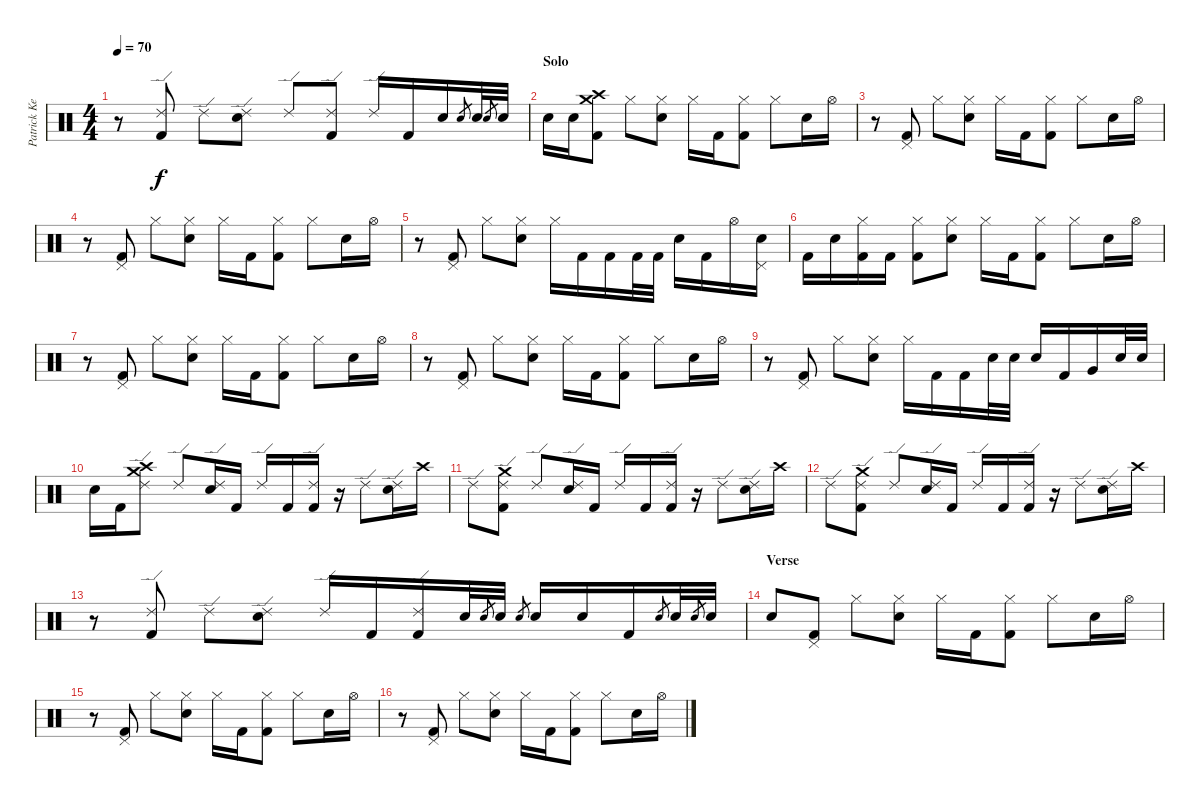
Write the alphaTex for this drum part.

\track ("Patrick Keeler (Drums)" "Patrick Ke") {instrument percussion}
\staff {score}
\articulation defaults
\ts (4 4)
\tempo 70
\clef neutral
\ks c
r.8{dy f} ("Kick (hit) 2" "Ride (edge) 2").8 "Ride (edge) 2".8 ("Snare (hit) 2" "Ride (edge) 2").8 "Ride (edge) 2".8 ("Kick (hit) 2" "Ride (edge) 2").8 "Ride (edge) 2".16 "Kick (hit) 2".16 "Snare (hit) 2".16 "Snare (hit) 2".8{gr} "Snare (hit) 2".32 "Snare (hit) 2".8{gr} "Snare (hit) 2".32 |
\section ("" "Solo")
"Snare (hit) 2".16 "Snare (hit) 2".16 ("Kick (hit) 2" "Crash high (hit)" "Crash medium (hit)").8 "Hi-Hat (closed)".8 ("Snare (hit) 2" "Hi-Hat (closed)").8 "Hi-Hat (closed)".16 "Kick (hit) 2".16 ("Kick (hit) 2" "Hi-Hat (closed)").8 "Hi-Hat (closed)".8 "Snare (hit) 2".16 "Hi-Hat (open)".16 |
r.8 ("Kick (hit) 2" "Pedal Hi-Hat (hit)").8 "Hi-Hat (closed)".8 ("Snare (hit) 2" "Hi-Hat (closed)").8 "Hi-Hat (closed)".16 "Kick (hit) 2".16 ("Kick (hit) 2" "Hi-Hat (closed)").8 "Hi-Hat (closed)".8 "Snare (hit) 2".16 "Hi-Hat (open)".16 |
r.8 ("Kick (hit) 2" "Pedal Hi-Hat (hit)").8 "Hi-Hat (closed)".8 ("Snare (hit) 2" "Hi-Hat (closed)").8 "Hi-Hat (closed)".16 "Kick (hit) 2".16 ("Kick (hit) 2" "Hi-Hat (closed)").8 "Hi-Hat (closed)".8 "Snare (hit) 2".16 "Hi-Hat (open)".16 |
r.8 ("Kick (hit) 2" "Pedal Hi-Hat (hit)").8 "Hi-Hat (closed)".8 ("Snare (hit) 2" "Hi-Hat (closed)").8 "Hi-Hat (closed)".16 "Kick (hit) 2".16 "Kick (hit) 2".16 "Kick (hit) 2".32 "Kick (hit) 2".32 "Snare (hit) 2".16 "Kick (hit) 2".16 "Hi-Hat (open)".16 ("Snare (hit) 2" "Pedal Hi-Hat (hit)").16 |
"Kick (hit) 2".16 "Snare (hit) 2".16 ("Kick (hit) 2" "Hi-Hat (closed)").16 "Kick (hit) 2".16 ("Kick (hit) 2" "Hi-Hat (closed)").8 ("Snare (hit) 2" "Hi-Hat (closed)").8 "Hi-Hat (closed)".16 "Kick (hit) 2".16 ("Kick (hit) 2" "Hi-Hat (closed)").8 "Hi-Hat (closed)".8 "Snare (hit) 2".16 "Hi-Hat (open)".16 |
r.8 ("Kick (hit) 2" "Pedal Hi-Hat (hit)").8 "Hi-Hat (closed)".8 ("Snare (hit) 2" "Hi-Hat (closed)").8 "Hi-Hat (closed)".16 "Kick (hit) 2".16 ("Kick (hit) 2" "Hi-Hat (closed)").8 "Hi-Hat (closed)".8 "Snare (hit) 2".16 "Hi-Hat (open)".16 |
r.8 ("Kick (hit) 2" "Pedal Hi-Hat (hit)").8 "Hi-Hat (closed)".8 ("Snare (hit) 2" "Hi-Hat (closed)").8 "Hi-Hat (closed)".16 "Kick (hit) 2".16 ("Kick (hit) 2" "Hi-Hat (closed)").8 "Hi-Hat (closed)".8 "Snare (hit) 2".16 "Hi-Hat (open)".16 |
r.8 ("Kick (hit) 2" "Pedal Hi-Hat (hit)").8 "Hi-Hat (closed)".8 ("Snare (hit) 2" "Hi-Hat (closed)").8 "Hi-Hat (closed)".16 "Kick (hit) 2".16 "Kick (hit) 2".16 "Snare (hit) 2".32 "Snare (hit) 2".32 "Snare (hit) 2".16 "Kick (hit) 2".16 "Very Low Tom (hit)".16 "Snare (hit) 2".32 "Snare (hit) 2".32 |
"Snare (hit) 2".16 "Kick (hit) 2".16 ("Ride (edge) 2" "Crash high (hit)" "Crash medium (hit)").8 "Ride (edge) 2".8 ("Snare (hit) 2" "Ride (edge) 2").16 "Kick (hit) 2".16 "Ride (edge) 2".16 "Kick (hit) 2".16 ("Kick (hit) 2" "Ride (edge) 2").16 r.16 "Ride (edge) 2".8 ("Snare (hit) 2" "Ride (edge) 2").16 "Crash high (hit)".16 |
"Ride (edge) 2".8 ("Kick (hit) 2" "Ride (edge) 2" "Crash medium (hit)").8 "Ride (edge) 2".8 ("Snare (hit) 2" "Ride (edge) 2").16 "Kick (hit) 2".16 "Ride (edge) 2".16 "Kick (hit) 2".16 ("Kick (hit) 2" "Ride (edge) 2").16 r.16 "Ride (edge) 2".8 ("Snare (hit) 2" "Ride (edge) 2").16 "Crash high (hit)".16 |
"Ride (edge) 2".8 ("Kick (hit) 2" "Ride (edge) 2" "Crash medium (hit)").8 "Ride (edge) 2".8 ("Snare (hit) 2" "Ride (edge) 2").16 "Kick (hit) 2".16 "Ride (edge) 2".16 "Kick (hit) 2".16 ("Kick (hit) 2" "Ride (edge) 2").16 r.16 "Ride (edge) 2".8 ("Snare (hit) 2" "Ride (edge) 2").16 "Crash high (hit)".16 |
r.8 ("Kick (hit) 2" "Ride (edge) 2").8 "Ride (edge) 2".8 ("Snare (hit) 2" "Ride (edge) 2").8 "Ride (edge) 2".16 "Kick (hit) 2".16 ("Kick (hit) 2" "Ride (edge) 2").16 "Snare (hit) 2".32 "Snare (hit) 2".8{gr} "Snare (hit) 2".32 "Snare (hit) 2".8{gr} "Snare (hit) 2".16 "Snare (hit) 2".16 "Kick (hit) 2".16 "Snare (hit) 2".8{gr} "Snare (hit) 2".32 "Snare (hit) 2".8{gr} "Snare (hit) 2".32 |
\section ("" "Verse")
"Snare (hit) 2".8 ("Kick (hit) 2" "Pedal Hi-Hat (hit)").8 "Hi-Hat (closed)".8 ("Snare (hit) 2" "Hi-Hat (closed)").8 "Hi-Hat (closed)".16 "Kick (hit) 2".16 ("Kick (hit) 2" "Hi-Hat (closed)").8 "Hi-Hat (closed)".8 "Snare (hit) 2".16 "Hi-Hat (open)".16 |
r.8 ("Kick (hit) 2" "Pedal Hi-Hat (hit)").8 "Hi-Hat (closed)".8 ("Snare (hit) 2" "Hi-Hat (closed)").8 "Hi-Hat (closed)".16 "Kick (hit) 2".16 ("Kick (hit) 2" "Hi-Hat (closed)").8 "Hi-Hat (closed)".8 "Snare (hit) 2".16 "Hi-Hat (open)".16 |
r.8 ("Kick (hit) 2" "Pedal Hi-Hat (hit)").8 "Hi-Hat (closed)".8 ("Snare (hit) 2" "Hi-Hat (closed)").8 "Hi-Hat (closed)".16 "Kick (hit) 2".16 ("Kick (hit) 2" "Hi-Hat (closed)").8 "Hi-Hat (closed)".8 "Snare (hit) 2".16 "Hi-Hat (open)".16
